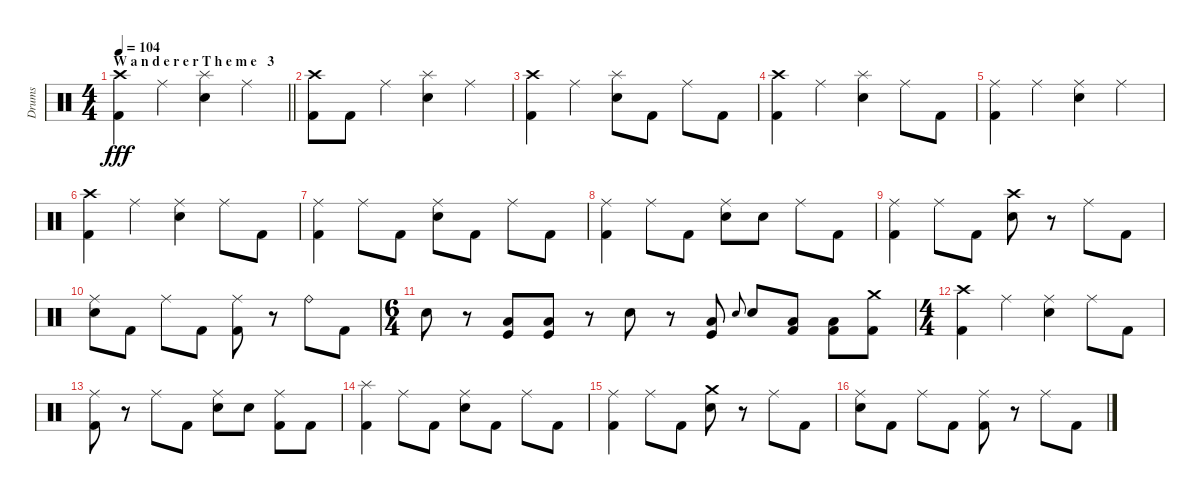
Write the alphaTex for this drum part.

\track ("Drums" "Drums") {instrument percussion}
\staff {score}
\articulation defaults
\ts (4 4)
\section ("" "W a n d e r e r T h e m e   3")
\tempo 104
\clef neutral
\barLineRight lightlight
\ks c
("Crash high (hit)" "Kick (hit) 2").4{dy fff} "Ride (middle)".4 ("Splash (hit)" "Snare (hit) 2").4 "Ride (middle)".4 |
("Crash high (hit)" "Kick (hit) 2").8 "Kick (hit) 2".8 "Ride (middle)".4 ("Splash (hit)" "Snare (hit) 2").4 "Ride (middle)".4 |
("Crash high (hit)" "Kick (hit) 2").4 "Ride (middle)".4 ("Splash (hit)" "Snare (hit) 2").8 "Kick (hit) 2".8 "Ride (middle)".8 "Kick (hit) 2".8 |
("Crash high (hit)" "Kick (hit) 2").4 "Ride (middle)".4 ("Splash (hit)" "Snare (hit) 2").4 "Ride (middle)".8 "Kick (hit) 2".8 |
("Ride (middle)" "Kick (hit) 2").4 "Ride (middle)".4 ("Ride (middle)" "Snare (hit) 2").4 "Ride (middle)".4 |
("Crash high (hit)" "Kick (hit) 2").4 "Ride (middle)".4 ("Ride (middle)" "Snare (hit) 2").4 "Ride (middle)".8 "Kick (hit) 2".8 |
("Ride (middle)" "Kick (hit) 2").4 "Ride (middle)".8 "Kick (hit) 2".8 ("Ride (middle)" "Snare (hit) 2").8 "Kick (hit) 2".8 "Ride (middle)".8 "Kick (hit) 2".8 |
("Ride (middle)" "Kick (hit) 2").4 "Ride (middle)".8 "Kick (hit) 2".8 ("Ride (middle)" "Snare (hit) 2").8 "Snare (hit) 2".8 "Ride (middle)".8 "Kick (hit) 2".8 |
("Ride (middle)" "Kick (hit) 2").4 "Ride (middle)".8 "Kick (hit) 2".8 ("Crash high (hit)" "Snare (hit) 2").8 r.8 "Ride (middle)".8 "Kick (hit) 2".8 |
("Ride (middle)" "Snare (hit) 2").8 "Kick (hit) 2".8 "Ride (middle)".8 "Kick (hit) 2".8 ("Ride (middle)" "Kick (hit) 2").8 r.8 "Ride (bell)".8 "Kick (hit) 2".8 |
\ts (6 4)
"Snare (hit) 2".8 r.8 ("Low Tom (hit)" "Kick (hit)").8 ("Low Tom (hit)" "Kick (hit)").8 r.8 "Snare (hit) 2".8 r.8 ("Low Tom (hit)" "Kick (hit)").8 "Snare (hit) 2".8{gr onbeat} "Snare (hit) 2".8 ("Low Tom (hit)" "Kick (hit) 2").8 ("Low Tom (hit)" "Kick (hit) 2").8 ("Crash medium (hit)" "Kick (hit) 2").8 |
\ts (4 4)
("Crash high (hit)" "Kick (hit) 2").4 "Ride (middle)".4 ("Ride (middle)" "Snare (hit) 2").4 "Ride (middle)".8 "Kick (hit) 2".8 |
("Ride (middle)" "Kick (hit) 2").8 r.8 "Ride (middle)".8 "Kick (hit) 2".8 ("Ride (middle)" "Snare (hit) 2").8 "Snare (hit) 2".8 ("Ride (middle)" "Kick (hit) 2").8 "Kick (hit) 2".8 |
("Splash (hit)" "Kick (hit) 2").4 "Ride (middle)".8 "Kick (hit) 2".8 ("Ride (middle)" "Snare (hit) 2").8 "Kick (hit) 2".8 "Ride (middle)".8 "Kick (hit) 2".8 |
("Ride (middle)" "Kick (hit) 2").4 "Ride (middle)".8 "Kick (hit) 2".8 ("Crash medium (hit)" "Snare (hit) 2").8 r.8 "Ride (middle)".8 "Kick (hit) 2".8 |
("Ride (middle)" "Snare (hit) 2").8 "Kick (hit) 2".8 "Ride (middle)".8 "Kick (hit) 2".8 ("Ride (middle)" "Kick (hit) 2").8 r.8 "Ride (middle)".8 "Kick (hit) 2".8
